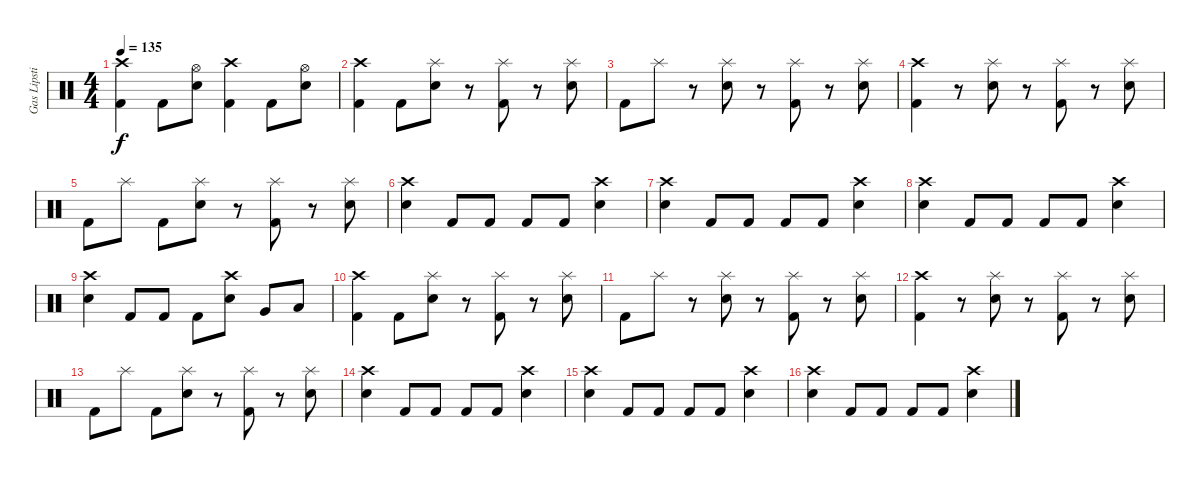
\track ("Gas Lipstick" "Gas Lipsti") {instrument percussion}
\staff {score}
\articulation defaults
\ts (4 4)
\tempo 135
\clef neutral
\ks c
("Kick (hit) 2" "Crash high (hit)").4{dy f} "Kick (hit) 2".8 ("Hi-Hat (open)" "Electric Snare (hit)").8 ("Crash high (hit)" "Kick (hit) 2").4 "Kick (hit) 2".8 ("Electric Snare (hit)" "Hi-Hat (open)").8 |
("Crash high (hit)" "Kick (hit) 2").4 "Kick (hit) 2".8 ("Splash (hit)" "Electric Snare (hit)").8 r.8 ("Splash (hit)" "Kick (hit) 2").8 r.8 ("Splash (hit)" "Electric Snare (hit)").8 |
"Kick (hit) 2".8 "Splash (hit)".8 r.8 ("Splash (hit)" "Electric Snare (hit)").8 r.8 ("Splash (hit)" "Kick (hit) 2").8 r.8 ("Splash (hit)" "Electric Snare (hit)").8 |
("Crash high (hit)" "Kick (hit) 2").4 r.8 ("Splash (hit)" "Electric Snare (hit)").8 r.8 ("Splash (hit)" "Kick (hit) 2").8 r.8 ("Splash (hit)" "Electric Snare (hit)").8 |
"Kick (hit) 2".8 "Splash (hit)".8 "Kick (hit) 2".8 ("Splash (hit)" "Electric Snare (hit)").8 r.8 ("Splash (hit)" "Kick (hit) 2").8 r.8 ("Splash (hit)" "Electric Snare (hit)").8 |
("Crash high (hit)" "Electric Snare (hit)").4 "Kick (hit) 2".8 "Kick (hit) 2".8 "Kick (hit) 2".8 "Kick (hit) 2".8 ("Crash high (hit)" "Electric Snare (hit)").4 |
("Crash high (hit)" "Electric Snare (hit)").4 "Kick (hit) 2".8 "Kick (hit) 2".8 "Kick (hit) 2".8 "Kick (hit) 2".8 ("Crash high (hit)" "Electric Snare (hit)").4 |
("Crash high (hit)" "Electric Snare (hit)").4 "Kick (hit) 2".8 "Kick (hit) 2".8 "Kick (hit) 2".8 "Kick (hit) 2".8 ("Crash high (hit)" "Electric Snare (hit)").4 |
("Crash high (hit)" "Electric Snare (hit)").4 "Kick (hit) 2".8 "Kick (hit) 2".8 "Kick (hit) 2".8 ("Crash high (hit)" "Electric Snare (hit)").8 "Very Low Tom (hit)".8 "Low Floor Tom (hit)".8 |
("Crash high (hit)" "Kick (hit) 2").4 "Kick (hit) 2".8 ("Splash (hit)" "Electric Snare (hit)").8 r.8 ("Splash (hit)" "Kick (hit) 2").8 r.8 ("Splash (hit)" "Electric Snare (hit)").8 |
"Kick (hit) 2".8 "Splash (hit)".8 r.8 ("Splash (hit)" "Electric Snare (hit)").8 r.8 ("Splash (hit)" "Kick (hit) 2").8 r.8 ("Splash (hit)" "Electric Snare (hit)").8 |
("Crash high (hit)" "Kick (hit) 2").4 r.8 ("Splash (hit)" "Electric Snare (hit)").8 r.8 ("Splash (hit)" "Kick (hit) 2").8 r.8 ("Splash (hit)" "Electric Snare (hit)").8 |
"Kick (hit) 2".8 "Splash (hit)".8 "Kick (hit) 2".8 ("Splash (hit)" "Electric Snare (hit)").8 r.8 ("Splash (hit)" "Kick (hit) 2").8 r.8 ("Splash (hit)" "Electric Snare (hit)").8 |
("Crash high (hit)" "Electric Snare (hit)").4 "Kick (hit) 2".8 "Kick (hit) 2".8 "Kick (hit) 2".8 "Kick (hit) 2".8 ("Crash high (hit)" "Electric Snare (hit)").4 |
("Crash high (hit)" "Electric Snare (hit)").4 "Kick (hit) 2".8 "Kick (hit) 2".8 "Kick (hit) 2".8 "Kick (hit) 2".8 ("Crash high (hit)" "Electric Snare (hit)").4 |
("Crash high (hit)" "Electric Snare (hit)").4 "Kick (hit) 2".8 "Kick (hit) 2".8 "Kick (hit) 2".8 "Kick (hit) 2".8 ("Crash high (hit)" "Electric Snare (hit)").4
